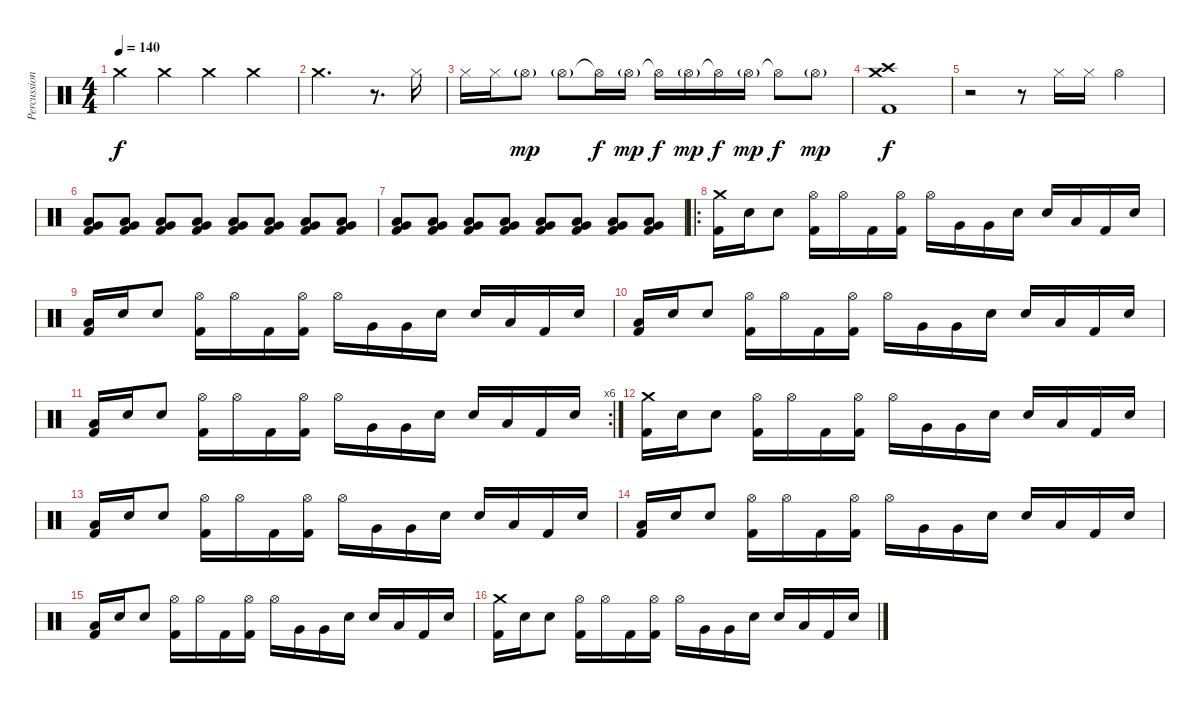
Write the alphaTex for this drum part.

\track ("Percussion" "Percussion") {instrument percussion}
\staff {score}
\articulation defaults
\ts (4 4)
\tempo 140
\clef neutral
\ks c "Crash medium (hit)".4{dy f} "Crash medium (hit)".4 "Crash medium (hit)".4 "Crash medium (hit)".4
|
"Crash medium (hit)".2{d} r.8{d} "Hi-Hat (closed)".16 |
"Hi-Hat (closed)".16 "Hi-Hat (closed)".16 "Hi-Hat (open)"{g}.8{dy mp} "Hi-Hat (open)"{g}.8 "Hi-Hat (open)"{t}.16{dy f} "Hi-Hat (open)"{g}.16{dy mp} "Hi-Hat (open)"{t}.16{dy f} "Hi-Hat (open)"{g}.16{dy mp} "Hi-Hat (open)"{t}.16{dy f} "Hi-Hat (open)"{g}.16{dy mp} "Hi-Hat (open)"{t}.8{dy f} "Hi-Hat (open)"{g}.8{dy mp} |
("Crash medium (hit)" "Crash high (hit)" "Kick (hit) 2").1{dy f} |
r.2 r.8 "Hi-Hat (closed)".16 "Hi-Hat (closed)".16 "Hi-Hat (open)".4 |
("Very Low Tom (hit)" "Low Floor Tom (hit)" "Kick (hit) 2").8{volume 4} ("Very Low Tom (hit)" "Low Floor Tom (hit)" "Kick (hit) 2").8 ("Very Low Tom (hit)" "Low Floor Tom (hit)" "Kick (hit) 2").8{volume 12} ("Very Low Tom (hit)" "Low Floor Tom (hit)" "Kick (hit) 2").8 ("Very Low Tom (hit)" "Low Floor Tom (hit)" "Kick (hit) 2").8 ("Very Low Tom (hit)" "Low Floor Tom (hit)" "Kick (hit) 2").8 ("Very Low Tom (hit)" "Low Floor Tom (hit)" "Kick (hit) 2").8 ("Very Low Tom (hit)" "Low Floor Tom (hit)" "Kick (hit) 2").8 |
("Very Low Tom (hit)" "Low Floor Tom (hit)" "Kick (hit) 2").8 ("Very Low Tom (hit)" "Low Floor Tom (hit)" "Kick (hit) 2").8 ("Very Low Tom (hit)" "Low Floor Tom (hit)" "Kick (hit) 2").8 ("Very Low Tom (hit)" "Low Floor Tom (hit)" "Kick (hit) 2").8 ("Very Low Tom (hit)" "Low Floor Tom (hit)" "Kick (hit) 2").8 ("Very Low Tom (hit)" "Low Floor Tom (hit)" "Kick (hit) 2").8 ("Very Low Tom (hit)" "Low Floor Tom (hit)" "Kick (hit) 2").8 ("Very Low Tom (hit)" "Low Floor Tom (hit)" "Kick (hit) 2").8 |
\ro
("Crash medium (hit)" "Kick (hit) 2").16 "Electric Snare (hit)".16 "Electric Snare (hit)".8 ("Hi-Hat (open)" "Kick (hit) 2").16 "Hi-Hat (open)".16 "Kick (hit) 2".16 ("Hi-Hat (open)" "Kick (hit) 2").16 "Hi-Hat (open)".16 "Very Low Tom (hit)".16 "Very Low Tom (hit)".16 "Electric Snare (hit)".16 "Electric Snare (hit)".16 "Low Tom (hit)".16 "Kick (hit) 2".16 "Electric Snare (hit)".16 |
("Low Tom (hit)" "Kick (hit) 2").16 "Electric Snare (hit)".16 "Electric Snare (hit)".8 ("Hi-Hat (open)" "Kick (hit) 2").16 "Hi-Hat (open)".16 "Kick (hit) 2".16 ("Hi-Hat (open)" "Kick (hit) 2").16 "Hi-Hat (open)".16 "Very Low Tom (hit)".16 "Very Low Tom (hit)".16 "Electric Snare (hit)".16 "Electric Snare (hit)".16 "Low Tom (hit)".16 "Kick (hit) 2".16 "Electric Snare (hit)".16 |
("Low Tom (hit)" "Kick (hit) 2").16 "Electric Snare (hit)".16 "Electric Snare (hit)".8 ("Hi-Hat (open)" "Kick (hit) 2").16 "Hi-Hat (open)".16 "Kick (hit) 2".16 ("Hi-Hat (open)" "Kick (hit) 2").16 "Hi-Hat (open)".16 "Very Low Tom (hit)".16 "Very Low Tom (hit)".16 "Electric Snare (hit)".16 "Electric Snare (hit)".16 "Low Tom (hit)".16 "Kick (hit) 2".16 "Electric Snare (hit)".16 |
\rc 6
("Low Tom (hit)" "Kick (hit) 2").16 "Electric Snare (hit)".16 "Electric Snare (hit)".8 ("Hi-Hat (open)" "Kick (hit) 2").16 "Hi-Hat (open)".16 "Kick (hit) 2".16 ("Hi-Hat (open)" "Kick (hit) 2").16 "Hi-Hat (open)".16 "Very Low Tom (hit)".16 "Very Low Tom (hit)".16 "Electric Snare (hit)".16 "Electric Snare (hit)".16 "Low Tom (hit)".16 "Kick (hit) 2".16 "Electric Snare (hit)".16 |
("Crash medium (hit)" "Kick (hit) 2").16 "Electric Snare (hit)".16 "Electric Snare (hit)".8 ("Hi-Hat (open)" "Kick (hit) 2").16 "Hi-Hat (open)".16 "Kick (hit) 2".16 ("Hi-Hat (open)" "Kick (hit) 2").16 "Hi-Hat (open)".16 "Very Low Tom (hit)".16 "Very Low Tom (hit)".16 "Electric Snare (hit)".16 "Electric Snare (hit)".16 "Low Tom (hit)".16 "Kick (hit) 2".16 "Electric Snare (hit)".16 |
("Low Tom (hit)" "Kick (hit) 2").16 "Electric Snare (hit)".16 "Electric Snare (hit)".8 ("Hi-Hat (open)" "Kick (hit) 2").16 "Hi-Hat (open)".16 "Kick (hit) 2".16 ("Hi-Hat (open)" "Kick (hit) 2").16 "Hi-Hat (open)".16 "Very Low Tom (hit)".16 "Very Low Tom (hit)".16 "Electric Snare (hit)".16 "Electric Snare (hit)".16 "Low Tom (hit)".16 "Kick (hit) 2".16 "Electric Snare (hit)".16 |
("Low Tom (hit)" "Kick (hit) 2").16 "Electric Snare (hit)".16 "Electric Snare (hit)".8 ("Hi-Hat (open)" "Kick (hit) 2").16 "Hi-Hat (open)".16 "Kick (hit) 2".16 ("Hi-Hat (open)" "Kick (hit) 2").16 "Hi-Hat (open)".16 "Very Low Tom (hit)".16 "Very Low Tom (hit)".16 "Electric Snare (hit)".16 "Electric Snare (hit)".16 "Low Tom (hit)".16 "Kick (hit) 2".16 "Electric Snare (hit)".16 |
("Low Tom (hit)" "Kick (hit) 2").16 "Electric Snare (hit)".16 "Electric Snare (hit)".8 ("Hi-Hat (open)" "Kick (hit) 2").16 "Hi-Hat (open)".16 "Kick (hit) 2".16 ("Hi-Hat (open)" "Kick (hit) 2").16 "Hi-Hat (open)".16 "Very Low Tom (hit)".16 "Very Low Tom (hit)".16 "Electric Snare (hit)".16 "Electric Snare (hit)".16 "Low Tom (hit)".16 "Kick (hit) 2".16 "Electric Snare (hit)".16 |
("Crash medium (hit)" "Kick (hit) 2").16 "Electric Snare (hit)".16 "Electric Snare (hit)".8 ("Hi-Hat (open)" "Kick (hit) 2").16 "Hi-Hat (open)".16 "Kick (hit) 2".16 ("Hi-Hat (open)" "Kick (hit) 2").16 "Hi-Hat (open)".16 "Very Low Tom (hit)".16 "Very Low Tom (hit)".16 "Electric Snare (hit)".16 "Electric Snare (hit)".16 "Low Tom (hit)".16 "Kick (hit) 2".16 "Electric Snare (hit)".16
